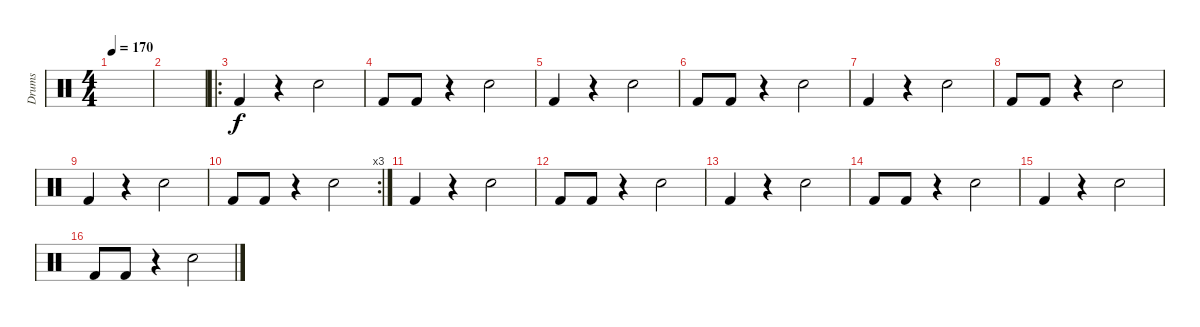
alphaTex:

\track ("Drums" "Drums") {instrument percussion}
\staff {score}
\articulation defaults
\ts (4 4)
\tempo 170
\clef neutral
\ks c
|
|
\ro "Kick (hit) 2".4
r.4 "Snare (hit) 2".2 |
"Kick (hit) 2".8 "Kick (hit) 2".8 r.4 "Snare (hit) 2".2 |
"Kick (hit) 2".4 r.4 "Snare (hit) 2".2 |
"Kick (hit) 2".8 "Kick (hit) 2".8 r.4 "Snare (hit) 2".2 |
"Kick (hit) 2".4 r.4 "Snare (hit) 2".2 |
"Kick (hit) 2".8 "Kick (hit) 2".8 r.4 "Snare (hit) 2".2 |
"Kick (hit) 2".4 r.4 "Snare (hit) 2".2 |
\rc 3 "Kick (hit) 2".8 "Kick (hit) 2".8
r.4 "Snare (hit) 2".2 |
"Kick (hit) 2".4 r.4 "Snare (hit) 2".2 |
"Kick (hit) 2".8 "Kick (hit) 2".8 r.4 "Snare (hit) 2".2 |
"Kick (hit) 2".4 r.4 "Snare (hit) 2".2 |
"Kick (hit) 2".8 "Kick (hit) 2".8 r.4 "Snare (hit) 2".2 |
"Kick (hit) 2".4 r.4 "Snare (hit) 2".2 |
"Kick (hit) 2".8 "Kick (hit) 2".8 r.4 "Snare (hit) 2".2
